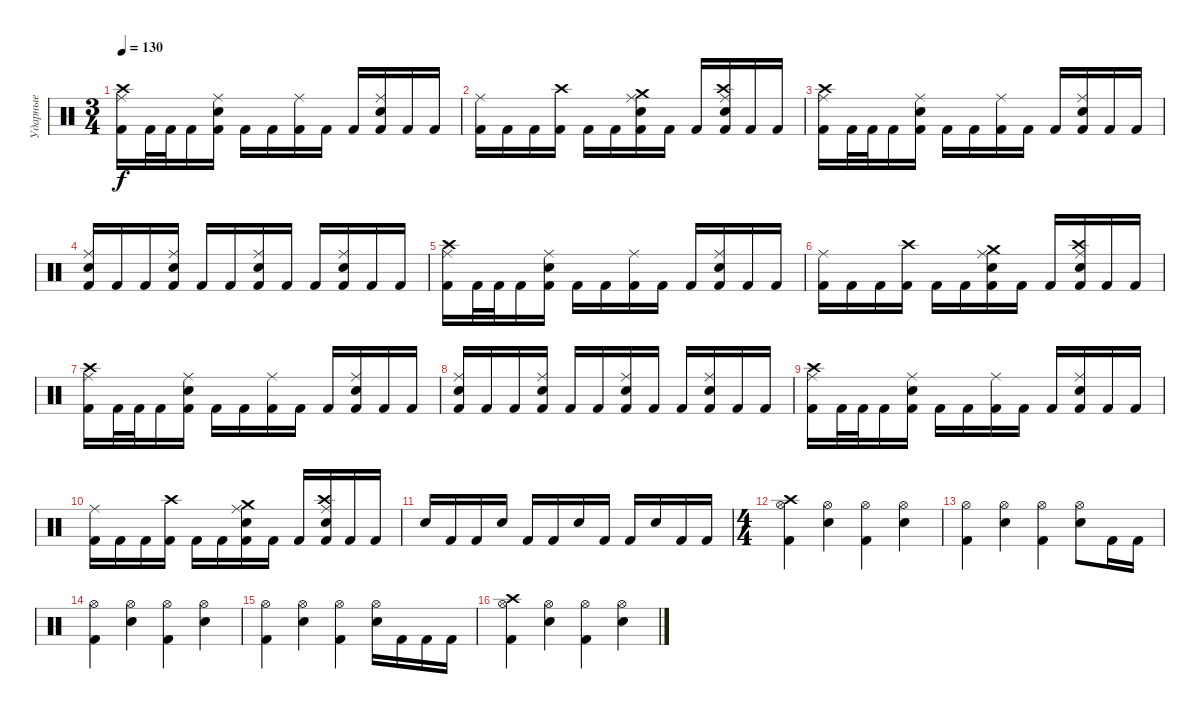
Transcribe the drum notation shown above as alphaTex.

\track ("Ударные" "Ударные") {instrument percussion}
\staff {score}
\articulation defaults
\ts (3 4)
\tempo 130
\clef neutral
\ks c
("Kick (hit) 2" "Ride (middle)" "Crash high (hit)").16{dy f} "Kick (hit) 2".32 "Kick (hit) 2".32 "Kick (hit) 2".16 ("Kick (hit) 2" "Snare (hit) 2" "Ride (middle)").16 "Kick (hit) 2".16 "Kick (hit) 2".16 ("Kick (hit) 2" "Ride (middle)").16 "Kick (hit) 2".16 "Kick (hit) 2".16 ("Kick (hit) 2" "Snare (hit) 2" "Ride (middle)").16 "Kick (hit) 2".16 "Kick (hit) 2".16 |
("Kick (hit) 2" "Ride (middle)").16 "Kick (hit) 2".16 "Kick (hit) 2".16 ("Kick (hit) 2" "Crash high (hit)").16 "Kick (hit) 2".16 "Kick (hit) 2".16 ("Kick (hit) 2" "Snare (hit) 2" "Ride (middle)" "Crash medium (hit)").16 "Kick (hit) 2".16 "Kick (hit) 2".16 ("Kick (hit) 2" "Snare (hit) 2" "Ride (middle)" "Crash high (hit)").16 "Kick (hit) 2".16 "Kick (hit) 2".16 |
("Kick (hit) 2" "Ride (middle)" "Crash high (hit)").16 "Kick (hit) 2".32 "Kick (hit) 2".32 "Kick (hit) 2".16 ("Kick (hit) 2" "Snare (hit) 2" "Ride (middle)").16 "Kick (hit) 2".16 "Kick (hit) 2".16 ("Kick (hit) 2" "Ride (middle)").16 "Kick (hit) 2".16 "Kick (hit) 2".16 ("Kick (hit) 2" "Snare (hit) 2" "Ride (middle)").16 "Kick (hit) 2".16 "Kick (hit) 2".16 |
("Kick (hit) 2" "Snare (hit) 2" "Ride (middle)").16 "Kick (hit) 2".16 "Kick (hit) 2".16 ("Kick (hit) 2" "Snare (hit) 2" "Ride (middle)").16 "Kick (hit) 2".16 "Kick (hit) 2".16 ("Kick (hit) 2" "Snare (hit) 2" "Ride (middle)").16 "Kick (hit) 2".16 "Kick (hit) 2".16 ("Kick (hit) 2" "Snare (hit) 2" "Ride (middle)").16 "Kick (hit) 2".16 "Kick (hit) 2".16 |
("Kick (hit) 2" "Ride (middle)" "Crash high (hit)").16 "Kick (hit) 2".32 "Kick (hit) 2".32 "Kick (hit) 2".16 ("Kick (hit) 2" "Snare (hit) 2" "Ride (middle)").16 "Kick (hit) 2".16 "Kick (hit) 2".16 ("Kick (hit) 2" "Ride (middle)").16 "Kick (hit) 2".16 "Kick (hit) 2".16 ("Kick (hit) 2" "Snare (hit) 2" "Ride (middle)").16 "Kick (hit) 2".16 "Kick (hit) 2".16 |
("Kick (hit) 2" "Ride (middle)").16 "Kick (hit) 2".16 "Kick (hit) 2".16 ("Kick (hit) 2" "Crash high (hit)").16 "Kick (hit) 2".16 "Kick (hit) 2".16 ("Kick (hit) 2" "Snare (hit) 2" "Ride (middle)" "Crash medium (hit)").16 "Kick (hit) 2".16 "Kick (hit) 2".16 ("Kick (hit) 2" "Snare (hit) 2" "Ride (middle)" "Crash high (hit)").16 "Kick (hit) 2".16 "Kick (hit) 2".16 |
("Kick (hit) 2" "Ride (middle)" "Crash high (hit)").16 "Kick (hit) 2".32 "Kick (hit) 2".32 "Kick (hit) 2".16 ("Kick (hit) 2" "Snare (hit) 2" "Ride (middle)").16 "Kick (hit) 2".16 "Kick (hit) 2".16 ("Kick (hit) 2" "Ride (middle)").16 "Kick (hit) 2".16 "Kick (hit) 2".16 ("Kick (hit) 2" "Snare (hit) 2" "Ride (middle)").16 "Kick (hit) 2".16 "Kick (hit) 2".16 |
("Kick (hit) 2" "Snare (hit) 2" "Ride (middle)").16 "Kick (hit) 2".16 "Kick (hit) 2".16 ("Kick (hit) 2" "Snare (hit) 2" "Ride (middle)").16 "Kick (hit) 2".16 "Kick (hit) 2".16 ("Kick (hit) 2" "Snare (hit) 2" "Ride (middle)").16 "Kick (hit) 2".16 "Kick (hit) 2".16 ("Kick (hit) 2" "Snare (hit) 2" "Ride (middle)").16 "Kick (hit) 2".16 "Kick (hit) 2".16 |
("Kick (hit) 2" "Ride (middle)" "Crash high (hit)").16 "Kick (hit) 2".32 "Kick (hit) 2".32 "Kick (hit) 2".16 ("Kick (hit) 2" "Snare (hit) 2" "Ride (middle)").16 "Kick (hit) 2".16 "Kick (hit) 2".16 ("Kick (hit) 2" "Ride (middle)").16 "Kick (hit) 2".16 "Kick (hit) 2".16 ("Kick (hit) 2" "Snare (hit) 2" "Ride (middle)").16 "Kick (hit) 2".16 "Kick (hit) 2".16 |
("Kick (hit) 2" "Ride (middle)").16 "Kick (hit) 2".16 "Kick (hit) 2".16 ("Kick (hit) 2" "Crash high (hit)").16 "Kick (hit) 2".16 "Kick (hit) 2".16 ("Kick (hit) 2" "Snare (hit) 2" "Ride (middle)" "Crash medium (hit)").16 "Kick (hit) 2".16 "Kick (hit) 2".16 ("Kick (hit) 2" "Snare (hit) 2" "Ride (middle)" "Crash high (hit)").16 "Kick (hit) 2".16 "Kick (hit) 2".16 |
"Snare (hit) 2".16 "Kick (hit) 2".16 "Kick (hit) 2".16 "Snare (hit) 2".16 "Kick (hit) 2".16 "Kick (hit) 2".16 "Snare (hit) 2".16 "Kick (hit) 2".16 "Kick (hit) 2".16 "Snare (hit) 2".16 "Kick (hit) 2".16 "Kick (hit) 2".16 |
\ts (4 4)
("Hi-Hat (open)" "Kick (hit) 2" "Crash high (hit)").4 ("Hi-Hat (open)" "Snare (hit) 2").4 ("Hi-Hat (open)" "Kick (hit) 2").4 ("Hi-Hat (open)" "Snare (hit) 2").4 |
("Hi-Hat (open)" "Kick (hit) 2").4 ("Hi-Hat (open)" "Snare (hit) 2").4 ("Hi-Hat (open)" "Kick (hit) 2").4 ("Hi-Hat (open)" "Snare (hit) 2").8 "Kick (hit) 2".16 "Kick (hit) 2".16 |
("Hi-Hat (open)" "Kick (hit) 2").4 ("Hi-Hat (open)" "Snare (hit) 2").4 ("Hi-Hat (open)" "Kick (hit) 2").4 ("Hi-Hat (open)" "Snare (hit) 2").4 |
("Hi-Hat (open)" "Kick (hit) 2").4 ("Hi-Hat (open)" "Snare (hit) 2").4 ("Hi-Hat (open)" "Kick (hit) 2").4 ("Hi-Hat (open)" "Snare (hit) 2").16 "Kick (hit) 2".16 "Kick (hit) 2".16 "Kick (hit) 2".16 |
("Hi-Hat (open)" "Kick (hit) 2" "Crash high (hit)").4 ("Hi-Hat (open)" "Snare (hit) 2").4 ("Hi-Hat (open)" "Kick (hit) 2").4 ("Hi-Hat (open)" "Snare (hit) 2").4
